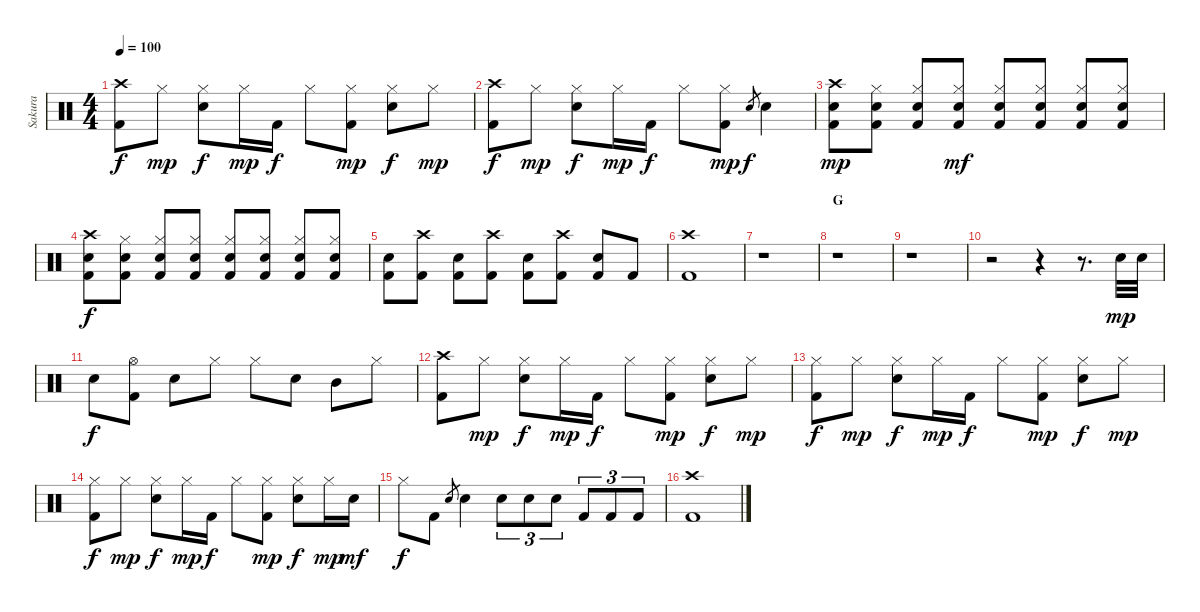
\track ("Sakura" "Sakura") {instrument percussion}
\staff {score}
\articulation defaults
\ts (4 4)
\tempo 100
\clef neutral
\ks c
("Crash high (hit)" "Kick (hit) 2").8{dy f} "Hi-Hat (closed)".8{dy mp} ("Hi-Hat (closed)" "Electric Snare (hit)").8{dy f} "Hi-Hat (closed)".16{dy mp} "Kick (hit) 2".16{dy f} "Hi-Hat (closed)".8 ("Hi-Hat (closed)" "Kick (hit) 2").8{dy mp} ("Hi-Hat (closed)" "Electric Snare (hit)").8{dy f} "Hi-Hat (closed)".8{dy mp} |
("Crash high (hit)" "Kick (hit) 2").8{dy f} "Hi-Hat (closed)".8{dy mp} ("Hi-Hat (closed)" "Electric Snare (hit)").8{dy f} "Hi-Hat (closed)".16{dy mp} "Kick (hit) 2".16{dy f} "Hi-Hat (closed)".8 ("Hi-Hat (closed)" "Kick (hit) 2").8{dy mp} "Electric Snare (hit)".8{gr dy f} "Electric Snare (hit)".4 |
("Crash high (hit)" "Electric Snare (hit)" "Kick (hit) 2").8{dy mp} ("Hi-Hat (closed)" "Electric Snare (hit)" "Kick (hit) 2").8 ("Hi-Hat (closed)" "Electric Snare (hit)" "Kick (hit) 2").8 ("Hi-Hat (closed)" "Electric Snare (hit)" "Kick (hit) 2").8{dy mf} ("Hi-Hat (closed)" "Electric Snare (hit)" "Kick (hit) 2").8 ("Hi-Hat (closed)" "Electric Snare (hit)" "Kick (hit) 2").8 ("Hi-Hat (closed)" "Electric Snare (hit)" "Kick (hit) 2").8 ("Hi-Hat (closed)" "Electric Snare (hit)" "Kick (hit) 2").8 |
("Crash high (hit)" "Electric Snare (hit)" "Kick (hit) 2").8{dy f} ("Hi-Hat (closed)" "Electric Snare (hit)" "Kick (hit) 2").8 ("Hi-Hat (closed)" "Electric Snare (hit)" "Kick (hit) 2").8 ("Hi-Hat (closed)" "Electric Snare (hit)" "Kick (hit) 2").8 ("Hi-Hat (closed)" "Electric Snare (hit)" "Kick (hit) 2").8 ("Hi-Hat (closed)" "Electric Snare (hit)" "Kick (hit) 2").8 ("Hi-Hat (closed)" "Electric Snare (hit)" "Kick (hit) 2").8 ("Hi-Hat (closed)" "Electric Snare (hit)" "Kick (hit) 2").8 |
("Electric Snare (hit)" "Kick (hit) 2").8 ("Crash high (hit)" "Kick (hit) 2").8 ("Electric Snare (hit)" "Kick (hit) 2").8 ("Crash high (hit)" "Kick (hit) 2").8 ("Electric Snare (hit)" "Kick (hit) 2").8 ("Crash high (hit)" "Kick (hit) 2").8 ("Electric Snare (hit)" "Kick (hit) 2").8 "Kick (hit) 2".8 |
("Crash high (hit)" "Kick (hit) 2").1 |
r.1 |
\section ("" "G")
r.1 |
r.1 |
r.2 r.4 r.8{d} "Electric Snare (hit)".32{dy mp} "Electric Snare (hit)".32 |
"Electric Snare (hit)".8{dy f} ("Hi-Hat (open)" "Kick (hit) 2").8 "Electric Snare (hit)".8 "Hi-Hat (closed)".8 "Hi-Hat (closed)".8 "Electric Snare (hit)".8 "Mid Tom (hit)".8 "Hi-Hat (closed)".8 |
("Crash high (hit)" "Kick (hit) 2").8 "Hi-Hat (closed)".8{dy mp} ("Hi-Hat (closed)" "Electric Snare (hit)").8{dy f} "Hi-Hat (closed)".16{dy mp} "Kick (hit) 2".16{dy f} "Hi-Hat (closed)".8 ("Hi-Hat (closed)" "Kick (hit) 2").8{dy mp} ("Hi-Hat (closed)" "Electric Snare (hit)").8{dy f} "Hi-Hat (closed)".8{dy mp} |
("Hi-Hat (closed)" "Kick (hit) 2").8{dy f} "Hi-Hat (closed)".8{dy mp} ("Hi-Hat (closed)" "Electric Snare (hit)").8{dy f} "Hi-Hat (closed)".16{dy mp} "Kick (hit) 2".16{dy f} "Hi-Hat (closed)".8 ("Hi-Hat (closed)" "Kick (hit) 2").8{dy mp} ("Hi-Hat (closed)" "Electric Snare (hit)").8{dy f} "Hi-Hat (closed)".8{dy mp} |
("Hi-Hat (closed)" "Kick (hit) 2").8{dy f} "Hi-Hat (closed)".8{dy mp} ("Hi-Hat (closed)" "Electric Snare (hit)").8{dy f} "Hi-Hat (closed)".16{dy mp} "Kick (hit) 2".16{dy f} "Hi-Hat (closed)".8 ("Hi-Hat (closed)" "Kick (hit) 2").8{dy mp} ("Hi-Hat (closed)" "Electric Snare (hit)").8{dy f} "Hi-Hat (closed)".16{dy mp} "Electric Snare (hit)".16{dy mf} |
"Hi-Hat (closed)".8{dy f} "Kick (hit) 2".8 "Electric Snare (hit)".8{gr} "Electric Snare (hit)".4 "Electric Snare (hit)".8{tu (3 2)} "Electric Snare (hit)".8{tu (3 2)} "Electric Snare (hit)".8{tu (3 2)} "Kick (hit) 2".8{tu (3 2)} "Kick (hit) 2".8{tu (3 2)} "Kick (hit) 2".8{tu (3 2)} |
("Crash high (hit)" "Kick (hit) 2").1
